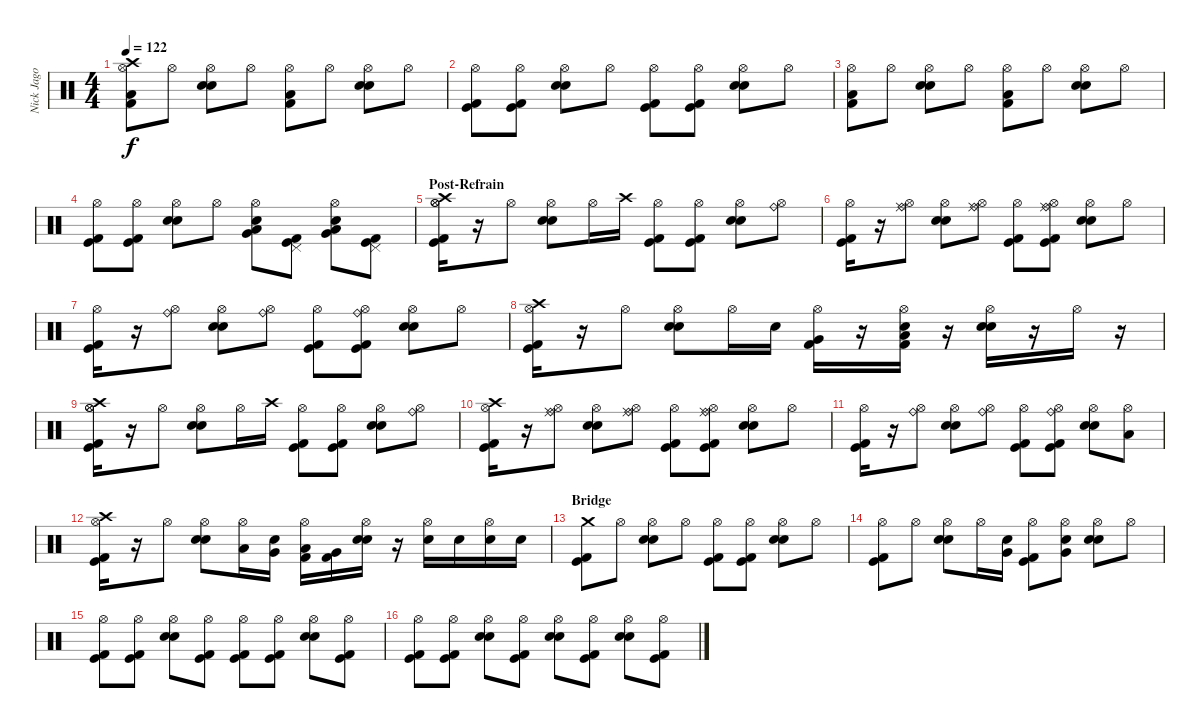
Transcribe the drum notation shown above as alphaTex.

\track ("Nick Jago - Drums" "Nick Jago ") {instrument percussion}
\staff {score}
\articulation defaults
\ts (4 4)
\tempo 122
\clef neutral
\ks c
("Hi-Hat (open)" "Crash high (hit)" "Low Floor Tom (hit)" "Kick (hit) 2").8{dy f} "Hi-Hat (open)".8 ("Hi-Hat (open)" "Snare (hit) 2" "Electric Snare (hit)").8 "Hi-Hat (open)".8 ("Hi-Hat (open)" "Low Floor Tom (hit)" "Kick (hit) 2").8 "Hi-Hat (open)".8 ("Hi-Hat (open)" "Snare (hit) 2" "Electric Snare (hit)").8 "Hi-Hat (open)".8 |
("Hi-Hat (open)" "Kick (hit)" "Kick (hit) 2").8 ("Hi-Hat (open)" "Kick (hit)" "Kick (hit) 2").8 ("Hi-Hat (open)" "Snare (hit) 2" "Electric Snare (hit)").8 "Hi-Hat (open)".8 ("Hi-Hat (open)" "Kick (hit)" "Kick (hit) 2").8 ("Hi-Hat (open)" "Kick (hit)" "Kick (hit) 2").8 ("Hi-Hat (open)" "Snare (hit) 2" "Electric Snare (hit)").8 "Hi-Hat (open)".8 |
("Hi-Hat (open)" "Low Floor Tom (hit)" "Kick (hit) 2").8 "Hi-Hat (open)".8 ("Hi-Hat (open)" "Snare (hit) 2" "Electric Snare (hit)").8 "Hi-Hat (open)".8 ("Hi-Hat (open)" "Low Floor Tom (hit)" "Kick (hit) 2").8 "Hi-Hat (open)".8 ("Hi-Hat (open)" "Snare (hit) 2" "Electric Snare (hit)").8 "Hi-Hat (open)".8 |
("Hi-Hat (open)" "Kick (hit)" "Kick (hit) 2").8 ("Hi-Hat (open)" "Kick (hit)" "Kick (hit) 2").8 ("Hi-Hat (open)" "Snare (hit) 2" "Electric Snare (hit)").8 "Hi-Hat (open)".8 ("Hi-Hat (open)" "Electric Snare (hit)" "Low Floor Tom (hit)" "Very Low Tom (hit)").8 ("Pedal Hi-Hat (hit)" "Kick (hit)" "Kick (hit) 2").8 ("Hi-Hat (open)" "Electric Snare (hit)" "Very Low Tom (hit)" "Low Floor Tom (hit)").8 ("Pedal Hi-Hat (hit)" "Kick (hit)" "Kick (hit) 2").8 |
\section ("" "Post-Refrain")
("Hi-Hat (open)" "Hi-Hat (open)" "Crash high (hit)" "Kick (hit)" "Kick (hit) 2").16 r.16 "Hi-Hat (open)".8 ("Hi-Hat (open)" "Snare (hit) 2" "Electric Snare (hit)").8 "Hi-Hat (open)".16 "Crash high (hit)".16 ("Hi-Hat (open)" "Kick (hit)" "Kick (hit) 2").8 ("Hi-Hat (open)" "Kick (hit)" "Kick (hit) 2").8 ("Hi-Hat (open)" "Snare (hit) 2" "Electric Snare (hit)").8 ("Hi-Hat (open)" "Ride (bell)").8 |
("Hi-Hat (open)" "Kick (hit)" "Kick (hit) 2").16 r.16 ("Hi-Hat (open)" "Ride (bell)" "Ride (middle)").8 ("Hi-Hat (open)" "Snare (hit) 2" "Electric Snare (hit)").8 ("Hi-Hat (open)" "Ride (middle)" "Ride (bell)").8 ("Hi-Hat (open)" "Kick (hit)" "Kick (hit) 2").8 ("Hi-Hat (open)" "Ride (middle)" "Ride (bell)" "Kick (hit)" "Kick (hit) 2").8 ("Hi-Hat (open)" "Snare (hit) 2" "Electric Snare (hit)").8 "Hi-Hat (open)".8 |
("Hi-Hat (open)" "Kick (hit)" "Kick (hit) 2").16 r.16 ("Hi-Hat (open)" "Ride (bell)").8 ("Hi-Hat (open)" "Snare (hit) 2" "Electric Snare (hit)").8 ("Hi-Hat (open)" "Ride (bell)").8 ("Hi-Hat (open)" "Kick (hit)" "Kick (hit) 2").8 ("Hi-Hat (open)" "Ride (bell)" "Kick (hit)" "Kick (hit) 2").8 ("Hi-Hat (open)" "Snare (hit) 2" "Electric Snare (hit)").8 "Hi-Hat (open)".8 |
("Hi-Hat (open)" "Crash high (hit)" "Kick (hit)" "Kick (hit) 2").16 r.16 "Hi-Hat (open)".8 ("Hi-Hat (open)" "Snare (hit) 2" "Electric Snare (hit)").8 "Hi-Hat (open)".16 "Electric Snare (hit)".16 ("Hi-Hat (open)" "Kick (hit) 2" "Very Low Tom (hit)").16 r.16 ("Hi-Hat (open)" "Electric Snare (hit)" "Kick (hit) 2" "Low Floor Tom (hit)").16 r.16 ("Hi-Hat (open)" "Snare (hit) 2" "Electric Snare (hit)").16 r.16 "Hi-Hat (open)".16 r.16 |
("Hi-Hat (open)" "Hi-Hat (open)" "Crash high (hit)" "Kick (hit)" "Kick (hit) 2").16 r.16 "Hi-Hat (open)".8 ("Hi-Hat (open)" "Snare (hit) 2" "Electric Snare (hit)").8 "Hi-Hat (open)".16 "Crash high (hit)".16 ("Hi-Hat (open)" "Kick (hit)" "Kick (hit) 2").8 ("Hi-Hat (open)" "Kick (hit)" "Kick (hit) 2").8 ("Hi-Hat (open)" "Snare (hit) 2" "Electric Snare (hit)").8 ("Hi-Hat (open)" "Ride (bell)").8 |
("Hi-Hat (open)" "Crash high (hit)" "Kick (hit)" "Kick (hit) 2").16 r.16 ("Hi-Hat (open)" "Ride (bell)" "Ride (middle)").8 ("Hi-Hat (open)" "Snare (hit) 2" "Electric Snare (hit)").8 ("Hi-Hat (open)" "Ride (middle)" "Ride (bell)").8 ("Hi-Hat (open)" "Kick (hit)" "Kick (hit) 2").8 ("Hi-Hat (open)" "Ride (middle)" "Ride (bell)" "Kick (hit)" "Kick (hit) 2").8 ("Hi-Hat (open)" "Snare (hit) 2" "Electric Snare (hit)").8 "Hi-Hat (open)".8 |
("Hi-Hat (open)" "Kick (hit)" "Kick (hit) 2").16 r.16 ("Hi-Hat (open)" "Ride (bell)").8 ("Hi-Hat (open)" "Snare (hit) 2" "Electric Snare (hit)").8 ("Hi-Hat (open)" "Ride (bell)").8 ("Hi-Hat (open)" "Kick (hit)" "Kick (hit) 2").8 ("Hi-Hat (open)" "Ride (bell)" "Kick (hit)" "Kick (hit) 2").8 ("Hi-Hat (open)" "Snare (hit) 2" "Electric Snare (hit)").8 ("Hi-Hat (open)" "Low Floor Tom (hit)").8 |
("Hi-Hat (open)" "Crash high (hit)" "Kick (hit)" "Kick (hit) 2").16 r.16 "Hi-Hat (open)".8 ("Hi-Hat (open)" "Snare (hit) 2" "Electric Snare (hit)").8 ("Hi-Hat (open)" "Low Tom (hit)").16 ("Electric Snare (hit)" "Very Low Tom (hit)").16 ("Hi-Hat (open)" "Low Floor Tom (hit)" "Kick (hit) 2").16 ("Kick (hit) 2" "Very Low Tom (hit)").16 ("Hi-Hat (open)" "Electric Snare (hit)" "Snare (hit) 2").16 r.16 ("Hi-Hat (open)" "Electric Snare (hit)").16 "Electric Snare (hit)".16 ("Hi-Hat (open)" "Electric Snare (hit)").16 "Electric Snare (hit)".16 |
\section ("" "Bridge")
("Crash medium (hit)" "Kick (hit)" "Kick (hit) 2").8 "Hi-Hat (open)".8 ("Hi-Hat (open)" "Electric Snare (hit)" "Snare (hit) 2").8 "Hi-Hat (open)".8 ("Hi-Hat (open)" "Kick (hit)" "Kick (hit) 2").8 ("Hi-Hat (open)" "Kick (hit)" "Kick (hit) 2").8 ("Hi-Hat (open)" "Electric Snare (hit)" "Snare (hit) 2").8 "Hi-Hat (open)".8 |
("Hi-Hat (open)" "Kick (hit)" "Kick (hit) 2").8 "Hi-Hat (open)".8 ("Hi-Hat (open)" "Electric Snare (hit)" "Snare (hit) 2").8 "Hi-Hat (open)".16 ("Very Low Tom (hit)" "Snare (hit) 2").16 ("Hi-Hat (open)" "Kick (hit)" "Kick (hit) 2").8 ("Hi-Hat (open)" "Snare (hit) 2" "Very Low Tom (hit)").8 ("Hi-Hat (open)" "Electric Snare (hit)" "Snare (hit) 2").8 "Hi-Hat (open)".8 |
("Hi-Hat (open)" "Kick (hit)" "Kick (hit) 2").8 ("Hi-Hat (open)" "Kick (hit)" "Kick (hit) 2").8 ("Hi-Hat (open)" "Electric Snare (hit)" "Snare (hit) 2").8 ("Hi-Hat (open)" "Kick (hit)" "Kick (hit) 2").8 ("Hi-Hat (open)" "Kick (hit)" "Kick (hit) 2").8 ("Hi-Hat (open)" "Kick (hit)" "Kick (hit) 2").8 ("Hi-Hat (open)" "Electric Snare (hit)" "Snare (hit) 2").8 ("Hi-Hat (open)" "Kick (hit)" "Kick (hit) 2").8 |
("Hi-Hat (open)" "Kick (hit)" "Kick (hit) 2").8 ("Hi-Hat (open)" "Kick (hit)" "Kick (hit) 2").8 ("Hi-Hat (open)" "Electric Snare (hit)" "Snare (hit) 2").8 ("Hi-Hat (open)" "Kick (hit)" "Kick (hit) 2").8 ("Hi-Hat (open)" "Electric Snare (hit)" "Snare (hit) 2").8 ("Hi-Hat (open)" "Kick (hit)" "Kick (hit) 2").8 ("Hi-Hat (open)" "Electric Snare (hit)" "Snare (hit) 2").8 ("Hi-Hat (open)" "Kick (hit)" "Kick (hit) 2").8
